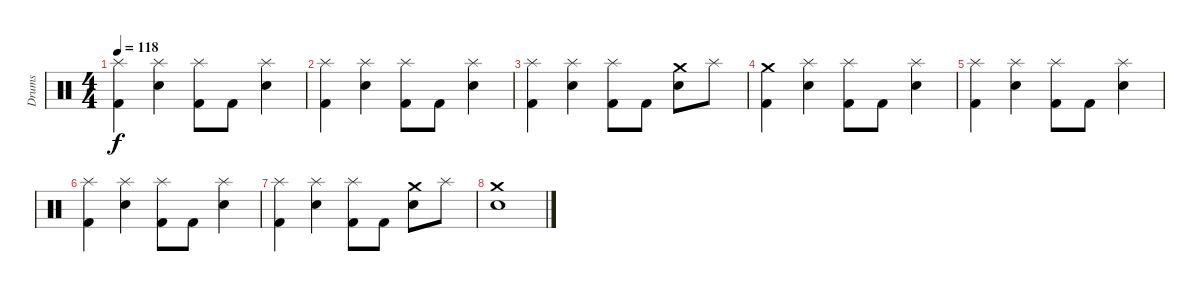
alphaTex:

\track ("Drums" "Drums") {instrument percussion}
\staff {score}
\articulation defaults
\ts (4 4)
\tempo 118
\clef neutral
\ks c
("Splash (hit)" "Kick (hit) 2").4{dy f} ("Splash (hit)" "Electric Snare (hit)").4 ("Splash (hit)" "Kick (hit) 2").8 "Kick (hit) 2".8 ("Splash (hit)" "Electric Snare (hit)").4 |
("Splash (hit)" "Kick (hit) 2").4 ("Splash (hit)" "Electric Snare (hit)").4 ("Splash (hit)" "Kick (hit) 2").8 "Kick (hit) 2".8 ("Splash (hit)" "Electric Snare (hit)").4 |
("Splash (hit)" "Kick (hit) 2").4 ("Splash (hit)" "Electric Snare (hit)").4 ("Splash (hit)" "Kick (hit) 2").8 "Kick (hit) 2".8 ("Crash medium (hit)" "Electric Snare (hit)").8 "Splash (hit)".8 |
("Crash medium (hit)" "Kick (hit) 2").4 ("Splash (hit)" "Electric Snare (hit)").4 ("Splash (hit)" "Kick (hit) 2").8 "Kick (hit) 2".8 ("Splash (hit)" "Electric Snare (hit)").4 |
("Splash (hit)" "Kick (hit) 2").4 ("Splash (hit)" "Electric Snare (hit)").4 ("Splash (hit)" "Kick (hit) 2").8 "Kick (hit) 2".8 ("Splash (hit)" "Electric Snare (hit)").4 |
("Splash (hit)" "Kick (hit) 2").4 ("Splash (hit)" "Electric Snare (hit)").4 ("Splash (hit)" "Kick (hit) 2").8 "Kick (hit) 2".8 ("Splash (hit)" "Electric Snare (hit)").4 |
("Splash (hit)" "Kick (hit) 2").4 ("Splash (hit)" "Electric Snare (hit)").4 ("Splash (hit)" "Kick (hit) 2").8 "Kick (hit) 2".8 ("Crash medium (hit)" "Electric Snare (hit)").8 "Splash (hit)".8 |
("Crash medium (hit)" "Electric Snare (hit)").1
